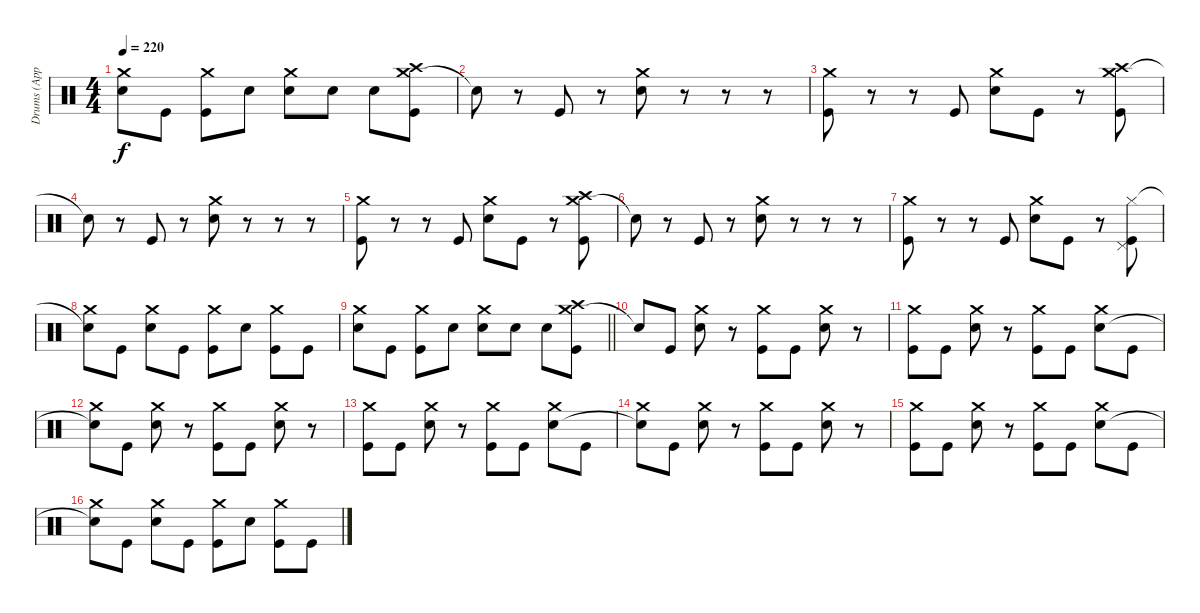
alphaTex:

\track ("Drums (Approx.)" "Drums (App") {instrument percussion}
\staff {score}
\articulation defaults
\ts (4 4)
\tempo 220
\clef neutral
\ks c
("Crash medium (hit)" "Electric Snare (hit)").8{dy f} "Kick (hit)".8 ("Crash medium (hit)" "Kick (hit)").8 "Electric Snare (hit)".8 ("Crash medium (hit)" "Electric Snare (hit)").8 "Electric Snare (hit)".8 "Electric Snare (hit)".8 ("Crash medium (hit)" "Crash high (hit)" "Kick (hit)").8 |
"Snare (hit)"{t}.8 r.8 "Kick (hit)".8 r.8 ("Crash medium (hit)" "Electric Snare (hit)").8 r.8 r.8 r.8 |
("Crash medium (hit)" "Kick (hit)").8 r.8 r.8 "Kick (hit)".8 ("Crash medium (hit)" "Electric Snare (hit)").8 "Kick (hit)".8 r.8 ("Crash medium (hit)" "Crash high (hit)" "Kick (hit)").8 |
"Snare (hit)"{t}.8 r.8 "Kick (hit)".8 r.8 ("Crash medium (hit)" "Electric Snare (hit)").8 r.8 r.8 r.8 |
("Crash medium (hit)" "Kick (hit)").8 r.8 r.8 "Kick (hit)".8 ("Crash medium (hit)" "Electric Snare (hit)").8 "Kick (hit)".8 r.8 ("Crash medium (hit)" "Crash high (hit)" "Kick (hit)").8 |
"Snare (hit)"{t}.8 r.8 "Kick (hit)".8 r.8 ("Crash medium (hit)" "Electric Snare (hit)").8 r.8 r.8 r.8 |
("Crash medium (hit)" "Kick (hit)").8 r.8 r.8 "Kick (hit)".8 ("Crash medium (hit)" "Electric Snare (hit)").8 "Kick (hit)".8 r.8 ("Pedal Hi-Hat (hit)" "Hi-Hat (closed)" "Kick (hit)").8 |
("Crash medium (hit)" "Snare (hit)"{t}).8 "Kick (hit)".8 ("Crash medium (hit)" "Electric Snare (hit)").8 "Kick (hit)".8 ("Crash medium (hit)" "Kick (hit)").8 "Electric Snare (hit)".8 ("Crash medium (hit)" "Kick (hit)").8 "Kick (hit)".8 |
\barLineRight lightlight
("Crash medium (hit)" "Electric Snare (hit)").8 "Kick (hit)".8 ("Crash medium (hit)" "Kick (hit)").8 "Electric Snare (hit)".8 ("Crash medium (hit)" "Electric Snare (hit)").8 "Electric Snare (hit)".8 "Electric Snare (hit)".8 ("Crash medium (hit)" "Crash high (hit)" "Kick (hit)").8 |
\section ("" "")
"Snare (hit)"{t}.8 "Kick (hit)".8 ("Crash medium (hit)" "Electric Snare (hit)").8 r.8 ("Crash medium (hit)" "Kick (hit)").8 "Kick (hit)".8 ("Crash medium (hit)" "Electric Snare (hit)").8 r.8 |
("Crash medium (hit)" "Kick (hit)").8 "Kick (hit)".8 ("Crash medium (hit)" "Electric Snare (hit)").8 r.8 ("Crash medium (hit)" "Kick (hit)").8 "Kick (hit)".8 ("Crash medium (hit)" "Electric Snare (hit)").8 "Kick (hit)".8 |
("Crash medium (hit)" "Snare (hit)"{t}).8 "Kick (hit)".8 ("Crash medium (hit)" "Electric Snare (hit)").8 r.8 ("Crash medium (hit)" "Kick (hit)").8 "Kick (hit)".8 ("Crash medium (hit)" "Electric Snare (hit)").8 r.8 |
("Crash medium (hit)" "Kick (hit)").8 "Kick (hit)".8 ("Crash medium (hit)" "Electric Snare (hit)").8 r.8 ("Crash medium (hit)" "Kick (hit)").8 "Kick (hit)".8 ("Crash medium (hit)" "Electric Snare (hit)").8 "Kick (hit)".8 |
("Crash medium (hit)" "Snare (hit)"{t}).8 "Kick (hit)".8 ("Crash medium (hit)" "Electric Snare (hit)").8 r.8 ("Crash medium (hit)" "Kick (hit)").8 "Kick (hit)".8 ("Crash medium (hit)" "Electric Snare (hit)").8 r.8 |
("Crash medium (hit)" "Kick (hit)").8 "Kick (hit)".8 ("Crash medium (hit)" "Electric Snare (hit)").8 r.8 ("Crash medium (hit)" "Kick (hit)").8 "Kick (hit)".8 ("Crash medium (hit)" "Electric Snare (hit)").8 "Kick (hit)".8 |
("Crash medium (hit)" "Snare (hit)"{t}).8 "Kick (hit)".8 ("Crash medium (hit)" "Electric Snare (hit)").8 "Kick (hit)".8 ("Crash medium (hit)" "Kick (hit)").8 "Electric Snare (hit)".8 ("Crash medium (hit)" "Kick (hit)").8 "Kick (hit)".8
